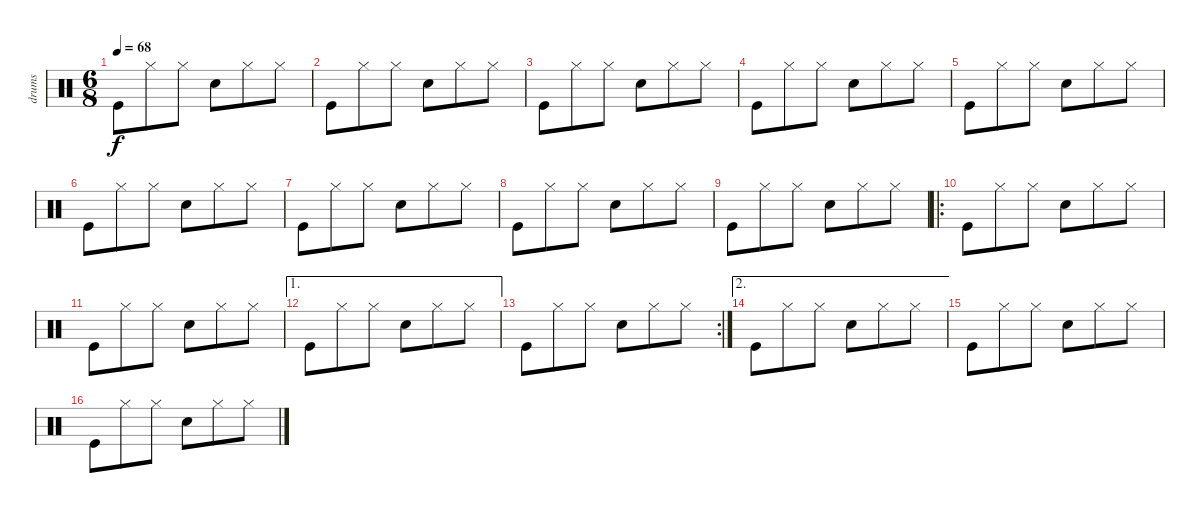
\track ("drums" "drums") {instrument percussion}
\staff {score}
\articulation defaults
\ts (6 8)
\tempo 68
\clef neutral
\ks c "Kick (hit)".8{dy f} "Hi-Hat (closed)".8 "Hi-Hat (closed)".8 "Snare (hit) 2".8 "Hi-Hat (closed)".8 "Hi-Hat (closed)".8
|
"Kick (hit)".8 "Hi-Hat (closed)".8 "Hi-Hat (closed)".8 "Snare (hit) 2".8 "Hi-Hat (closed)".8 "Hi-Hat (closed)".8 |
"Kick (hit)".8 "Hi-Hat (closed)".8 "Hi-Hat (closed)".8 "Snare (hit) 2".8 "Hi-Hat (closed)".8 "Hi-Hat (closed)".8 |
"Kick (hit)".8 "Hi-Hat (closed)".8 "Hi-Hat (closed)".8 "Snare (hit) 2".8 "Hi-Hat (closed)".8 "Hi-Hat (closed)".8 |
"Kick (hit)".8 "Hi-Hat (closed)".8 "Hi-Hat (closed)".8 "Snare (hit) 2".8 "Hi-Hat (closed)".8 "Hi-Hat (closed)".8 |
"Kick (hit)".8 "Hi-Hat (closed)".8 "Hi-Hat (closed)".8 "Snare (hit) 2".8 "Hi-Hat (closed)".8 "Hi-Hat (closed)".8 |
"Kick (hit)".8 "Hi-Hat (closed)".8 "Hi-Hat (closed)".8 "Snare (hit) 2".8 "Hi-Hat (closed)".8 "Hi-Hat (closed)".8 |
"Kick (hit)".8 "Hi-Hat (closed)".8 "Hi-Hat (closed)".8 "Snare (hit) 2".8 "Hi-Hat (closed)".8 "Hi-Hat (closed)".8 |
"Kick (hit)".8 "Hi-Hat (closed)".8 "Hi-Hat (closed)".8 "Snare (hit) 2".8 "Hi-Hat (closed)".8 "Hi-Hat (closed)".8 |
\ro "Kick (hit)".8 "Hi-Hat (closed)".8 "Hi-Hat (closed)".8 "Snare (hit) 2".8 "Hi-Hat (closed)".8 "Hi-Hat (closed)".8
|
"Kick (hit)".8 "Hi-Hat (closed)".8 "Hi-Hat (closed)".8 "Snare (hit) 2".8 "Hi-Hat (closed)".8 "Hi-Hat (closed)".8 |
\ae 1 "Kick (hit)".8 "Hi-Hat (closed)".8 "Hi-Hat (closed)".8 "Snare (hit) 2".8 "Hi-Hat (closed)".8 "Hi-Hat (closed)".8
|
\rc 2 "Kick (hit)".8 "Hi-Hat (closed)".8 "Hi-Hat (closed)".8 "Snare (hit) 2".8 "Hi-Hat (closed)".8 "Hi-Hat (closed)".8
|
\ae 2 "Kick (hit)".8 "Hi-Hat (closed)".8 "Hi-Hat (closed)".8 "Snare (hit) 2".8 "Hi-Hat (closed)".8 "Hi-Hat (closed)".8
|
"Kick (hit)".8 "Hi-Hat (closed)".8 "Hi-Hat (closed)".8 "Snare (hit) 2".8 "Hi-Hat (closed)".8 "Hi-Hat (closed)".8 |
"Kick (hit)".8 "Hi-Hat (closed)".8 "Hi-Hat (closed)".8 "Snare (hit) 2".8 "Hi-Hat (closed)".8 "Hi-Hat (closed)".8
